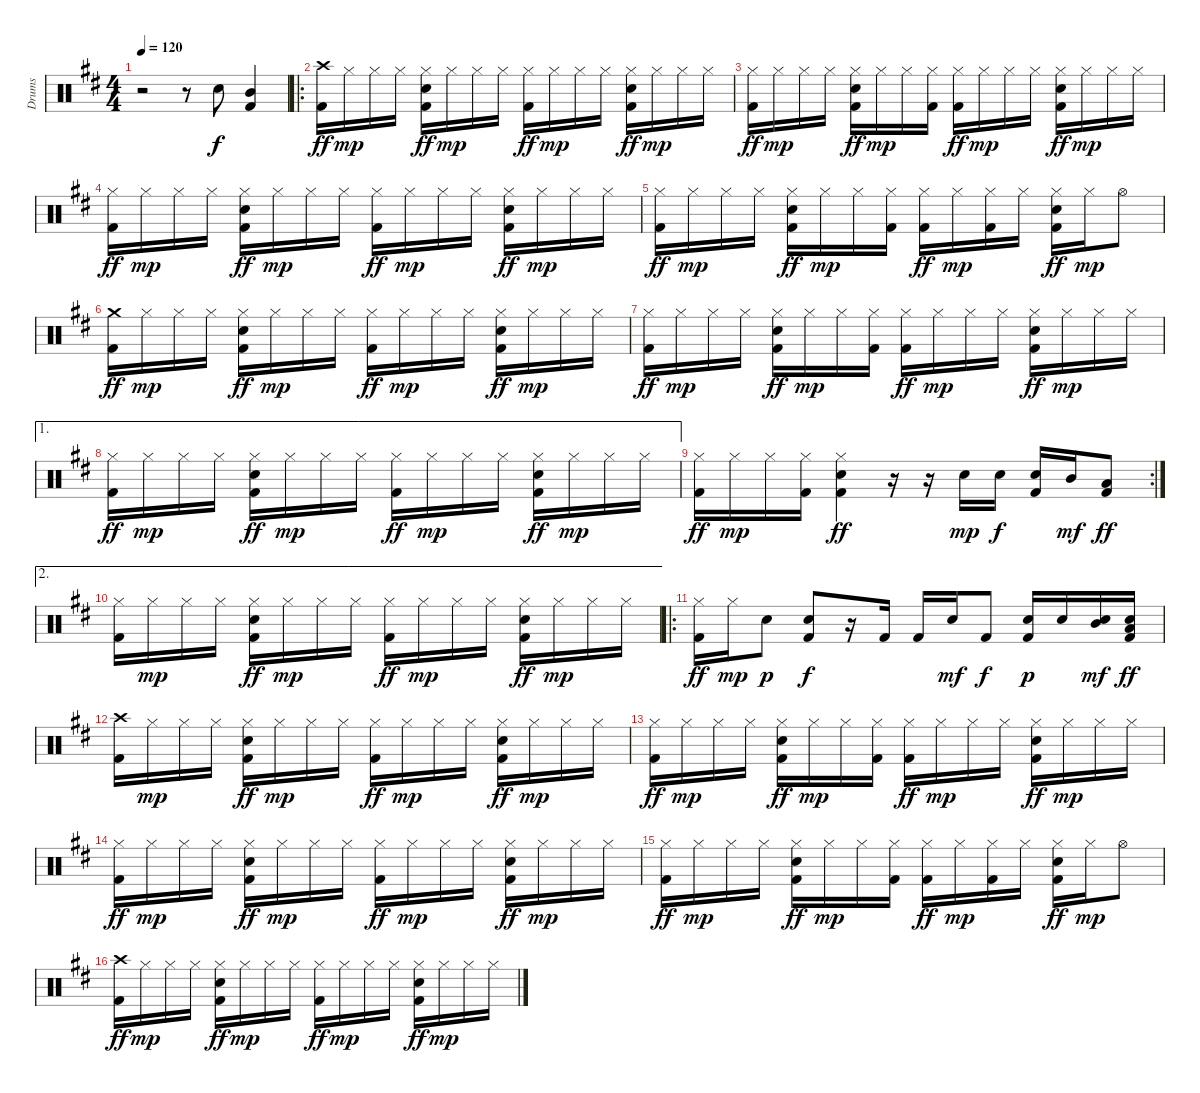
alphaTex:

\track ("Drums" "Drums") {instrument percussion}
\staff {score}
\articulation defaults
\ts (4 4)
\tempo 120
\clef neutral
\ks d
r.2{dy f} r.8 "Snare (hit) 2".8 ("Kick (hit) 2" "Mid Tom (hit)").4 |
\ro
("Crash high (hit)" "Kick (hit) 2").16{dy ff} "Hi-Hat (closed)".16{dy mp} "Hi-Hat (closed)".16 "Hi-Hat (closed)".16 ("Hi-Hat (closed)" "Kick (hit) 2" "Snare (hit) 2").16{dy ff} "Hi-Hat (closed)".16{dy mp} "Hi-Hat (closed)".16 "Hi-Hat (closed)".16 ("Hi-Hat (closed)" "Kick (hit) 2").16{dy ff} "Hi-Hat (closed)".16{dy mp} "Hi-Hat (closed)".16 "Hi-Hat (closed)".16 ("Hi-Hat (closed)" "Kick (hit) 2" "Snare (hit) 2").16{dy ff} "Hi-Hat (closed)".16{dy mp} "Hi-Hat (closed)".16 "Hi-Hat (closed)".16 |
("Hi-Hat (closed)" "Kick (hit) 2").16{dy ff} "Hi-Hat (closed)".16{dy mp} "Hi-Hat (closed)".16 "Hi-Hat (closed)".16 ("Hi-Hat (closed)" "Kick (hit) 2" "Snare (hit) 2").16{dy ff} "Hi-Hat (closed)".16{dy mp} "Hi-Hat (closed)".16 ("Hi-Hat (closed)" "Kick (hit) 2").16 ("Hi-Hat (closed)" "Kick (hit) 2").16{dy ff} "Hi-Hat (closed)".16{dy mp} "Hi-Hat (closed)".16 "Hi-Hat (closed)".16 ("Hi-Hat (closed)" "Kick (hit) 2" "Snare (hit) 2").16{dy ff} "Hi-Hat (closed)".16{dy mp} "Hi-Hat (closed)".16 "Hi-Hat (closed)".16 |
("Hi-Hat (closed)" "Kick (hit) 2").16{dy ff} "Hi-Hat (closed)".16{dy mp} "Hi-Hat (closed)".16 "Hi-Hat (closed)".16 ("Hi-Hat (closed)" "Kick (hit) 2" "Snare (hit) 2").16{dy ff} "Hi-Hat (closed)".16{dy mp} "Hi-Hat (closed)".16 "Hi-Hat (closed)".16 ("Hi-Hat (closed)" "Kick (hit) 2").16{dy ff} "Hi-Hat (closed)".16{dy mp} "Hi-Hat (closed)".16 "Hi-Hat (closed)".16 ("Hi-Hat (closed)" "Kick (hit) 2" "Snare (hit) 2").16{dy ff} "Hi-Hat (closed)".16{dy mp} "Hi-Hat (closed)".16 "Hi-Hat (closed)".16 |
("Hi-Hat (closed)" "Kick (hit) 2").16{dy ff} "Hi-Hat (closed)".16{dy mp} "Hi-Hat (closed)".16 "Hi-Hat (closed)".16 ("Hi-Hat (closed)" "Kick (hit) 2" "Snare (hit) 2").16{dy ff} "Hi-Hat (closed)".16{dy mp} "Hi-Hat (closed)".16 ("Hi-Hat (closed)" "Kick (hit) 2").16 ("Hi-Hat (closed)" "Kick (hit) 2").16{dy ff} "Hi-Hat (closed)".16{dy mp} ("Hi-Hat (closed)" "Kick (hit) 2").16 "Hi-Hat (closed)".16 ("Hi-Hat (closed)" "Kick (hit) 2" "Snare (hit) 2").16{dy ff} "Hi-Hat (closed)".16{dy mp} "Hi-Hat (open)".8 |
("Crash medium (hit)" "Kick (hit) 2").16{dy ff} "Hi-Hat (closed)".16{dy mp} "Hi-Hat (closed)".16 "Hi-Hat (closed)".16 ("Hi-Hat (closed)" "Kick (hit) 2" "Snare (hit) 2").16{dy ff} "Hi-Hat (closed)".16{dy mp} "Hi-Hat (closed)".16 "Hi-Hat (closed)".16 ("Hi-Hat (closed)" "Kick (hit) 2").16{dy ff} "Hi-Hat (closed)".16{dy mp} "Hi-Hat (closed)".16 "Hi-Hat (closed)".16 ("Hi-Hat (closed)" "Kick (hit) 2" "Snare (hit) 2").16{dy ff} "Hi-Hat (closed)".16{dy mp} "Hi-Hat (closed)".16 "Hi-Hat (closed)".16 |
("Hi-Hat (closed)" "Kick (hit) 2").16{dy ff} "Hi-Hat (closed)".16{dy mp} "Hi-Hat (closed)".16 "Hi-Hat (closed)".16 ("Hi-Hat (closed)" "Kick (hit) 2" "Snare (hit) 2").16{dy ff} "Hi-Hat (closed)".16{dy mp} "Hi-Hat (closed)".16 ("Hi-Hat (closed)" "Kick (hit) 2").16 ("Hi-Hat (closed)" "Kick (hit) 2").16{dy ff} "Hi-Hat (closed)".16{dy mp} "Hi-Hat (closed)".16 "Hi-Hat (closed)".16 ("Hi-Hat (closed)" "Kick (hit) 2" "Snare (hit) 2").16{dy ff} "Hi-Hat (closed)".16{dy mp} "Hi-Hat (closed)".16 "Hi-Hat (closed)".16 |
\ae 1
("Hi-Hat (closed)" "Kick (hit) 2").16{dy ff} "Hi-Hat (closed)".16{dy mp} "Hi-Hat (closed)".16 "Hi-Hat (closed)".16 ("Hi-Hat (closed)" "Kick (hit) 2" "Snare (hit) 2").16{dy ff} "Hi-Hat (closed)".16{dy mp} "Hi-Hat (closed)".16 "Hi-Hat (closed)".16 ("Hi-Hat (closed)" "Kick (hit) 2").16{dy ff} "Hi-Hat (closed)".16{dy mp} "Hi-Hat (closed)".16 "Hi-Hat (closed)".16 ("Hi-Hat (closed)" "Kick (hit) 2" "Snare (hit) 2").16{dy ff} "Hi-Hat (closed)".16{dy mp} "Hi-Hat (closed)".16 "Hi-Hat (closed)".16 |
\rc 2
("Hi-Hat (closed)" "Kick (hit) 2").16{dy ff} "Hi-Hat (closed)".16{dy mp} "Hi-Hat (closed)".16 ("Hi-Hat (closed)" "Kick (hit) 2").16 ("Hi-Hat (closed)" "Kick (hit) 2" "Snare (hit) 2").4{dy ff} r.16 r.16 "Snare (hit) 2".16{dy mp} "Snare (hit) 2".16{dy f} ("Kick (hit) 2" "Snare (hit) 2").16 "Mid Tom (hit)".16{dy mf} ("Kick (hit) 2" "Low Tom (hit)").8{dy ff} |
\ae 2
("Hi-Hat (closed)" "Kick (hit) 2").16 "Hi-Hat (closed)".16{dy mp} "Hi-Hat (closed)".16 "Hi-Hat (closed)".16 ("Hi-Hat (closed)" "Kick (hit) 2" "Snare (hit) 2").16{dy ff} "Hi-Hat (closed)".16{dy mp} "Hi-Hat (closed)".16 "Hi-Hat (closed)".16 ("Hi-Hat (closed)" "Kick (hit) 2").16{dy ff} "Hi-Hat (closed)".16{dy mp} "Hi-Hat (closed)".16 "Hi-Hat (closed)".16 ("Hi-Hat (closed)" "Kick (hit) 2" "Snare (hit) 2").16{dy ff} "Hi-Hat (closed)".16{dy mp} "Hi-Hat (closed)".16 "Hi-Hat (closed)".16 |
\ro
("Hi-Hat (closed)" "Kick (hit) 2").16{dy ff} "Hi-Hat (closed)".16{dy mp} "Snare (hit) 2".8{dy p} ("Kick (hit) 2" "Snare (hit) 2").8{dy f} r.16 "Kick (hit) 2".16 "Kick (hit) 2".16 "Snare (hit) 2".16{dy mf} "Kick (hit) 2".8{dy f} ("Kick (hit) 2" "Snare (hit) 2").16{dy p} "Snare (hit) 2".16 ("Snare (hit) 2" "Mid Tom (hit)").16{dy mf} ("Kick (hit) 2" "Snare (hit) 2" "Low Tom (hit)").16{dy ff} |
("Crash high (hit)" "Kick (hit) 2").16 "Hi-Hat (closed)".16{dy mp} "Hi-Hat (closed)".16 "Hi-Hat (closed)".16 ("Hi-Hat (closed)" "Kick (hit) 2" "Snare (hit) 2").16{dy ff} "Hi-Hat (closed)".16{dy mp} "Hi-Hat (closed)".16 "Hi-Hat (closed)".16 ("Hi-Hat (closed)" "Kick (hit) 2").16{dy ff} "Hi-Hat (closed)".16{dy mp} "Hi-Hat (closed)".16 "Hi-Hat (closed)".16 ("Hi-Hat (closed)" "Kick (hit) 2" "Snare (hit) 2").16{dy ff} "Hi-Hat (closed)".16{dy mp} "Hi-Hat (closed)".16 "Hi-Hat (closed)".16 |
("Hi-Hat (closed)" "Kick (hit) 2").16{dy ff} "Hi-Hat (closed)".16{dy mp} "Hi-Hat (closed)".16 "Hi-Hat (closed)".16 ("Hi-Hat (closed)" "Kick (hit) 2" "Snare (hit) 2").16{dy ff} "Hi-Hat (closed)".16{dy mp} "Hi-Hat (closed)".16 ("Hi-Hat (closed)" "Kick (hit) 2").16 ("Hi-Hat (closed)" "Kick (hit) 2").16{dy ff} "Hi-Hat (closed)".16{dy mp} "Hi-Hat (closed)".16 "Hi-Hat (closed)".16 ("Hi-Hat (closed)" "Kick (hit) 2" "Snare (hit) 2").16{dy ff} "Hi-Hat (closed)".16{dy mp} "Hi-Hat (closed)".16 "Hi-Hat (closed)".16 |
("Hi-Hat (closed)" "Kick (hit) 2").16{dy ff} "Hi-Hat (closed)".16{dy mp} "Hi-Hat (closed)".16 "Hi-Hat (closed)".16 ("Hi-Hat (closed)" "Kick (hit) 2" "Snare (hit) 2").16{dy ff} "Hi-Hat (closed)".16{dy mp} "Hi-Hat (closed)".16 "Hi-Hat (closed)".16 ("Hi-Hat (closed)" "Kick (hit) 2").16{dy ff} "Hi-Hat (closed)".16{dy mp} "Hi-Hat (closed)".16 "Hi-Hat (closed)".16 ("Hi-Hat (closed)" "Kick (hit) 2" "Snare (hit) 2").16{dy ff} "Hi-Hat (closed)".16{dy mp} "Hi-Hat (closed)".16 "Hi-Hat (closed)".16 |
("Hi-Hat (closed)" "Kick (hit) 2").16{dy ff} "Hi-Hat (closed)".16{dy mp} "Hi-Hat (closed)".16 "Hi-Hat (closed)".16 ("Hi-Hat (closed)" "Kick (hit) 2" "Snare (hit) 2").16{dy ff} "Hi-Hat (closed)".16{dy mp} "Hi-Hat (closed)".16 ("Hi-Hat (closed)" "Kick (hit) 2").16 ("Hi-Hat (closed)" "Kick (hit) 2").16{dy ff} "Hi-Hat (closed)".16{dy mp} ("Hi-Hat (closed)" "Kick (hit) 2").16 "Hi-Hat (closed)".16 ("Hi-Hat (closed)" "Kick (hit) 2" "Snare (hit) 2").16{dy ff} "Hi-Hat (closed)".16{dy mp} "Hi-Hat (open)".8 |
("Crash high (hit)" "Kick (hit) 2").16{dy ff} "Hi-Hat (closed)".16{dy mp} "Hi-Hat (closed)".16 "Hi-Hat (closed)".16 ("Hi-Hat (closed)" "Kick (hit) 2" "Snare (hit) 2").16{dy ff} "Hi-Hat (closed)".16{dy mp} "Hi-Hat (closed)".16 "Hi-Hat (closed)".16 ("Hi-Hat (closed)" "Kick (hit) 2").16{dy ff} "Hi-Hat (closed)".16{dy mp} "Hi-Hat (closed)".16 "Hi-Hat (closed)".16 ("Hi-Hat (closed)" "Kick (hit) 2" "Snare (hit) 2").16{dy ff} "Hi-Hat (closed)".16{dy mp} "Hi-Hat (closed)".16 "Hi-Hat (closed)".16
